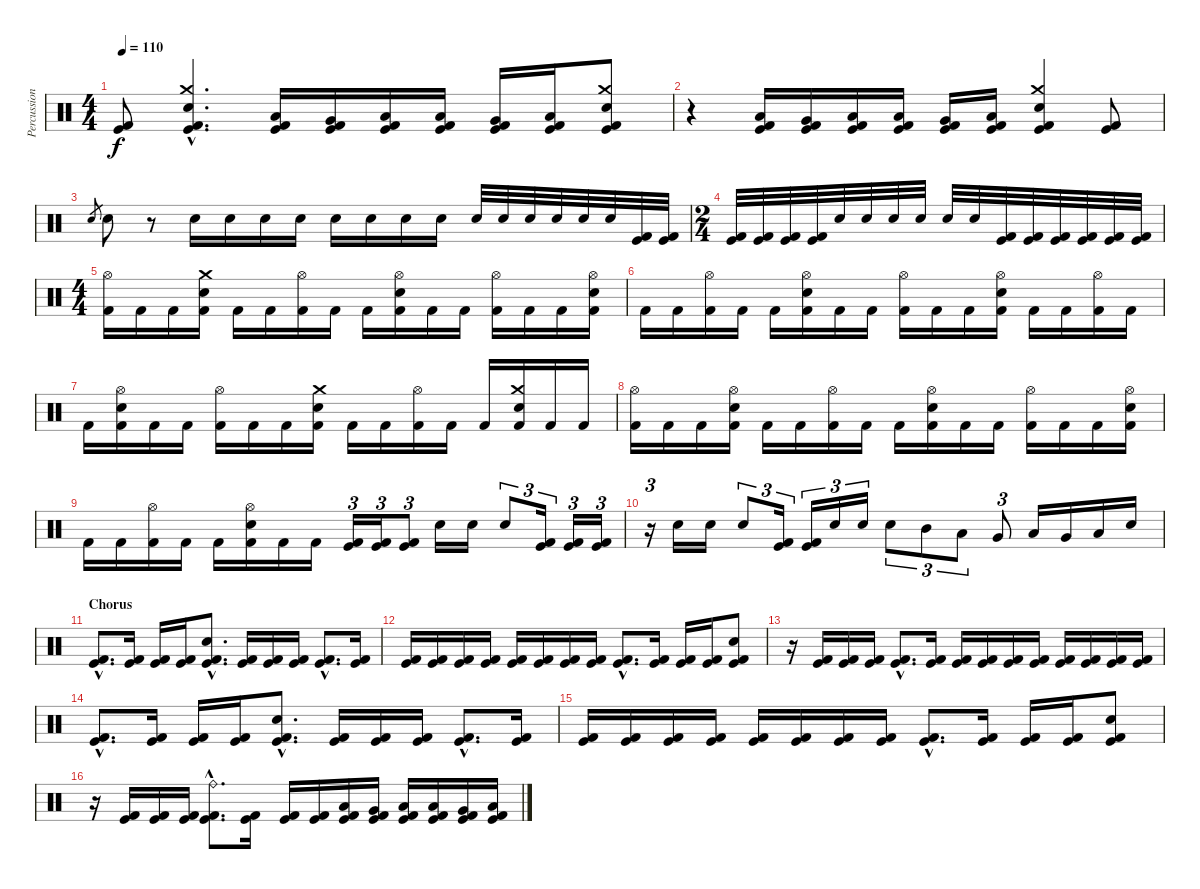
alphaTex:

\track ("Percussion" "Percussion") {instrument percussion}
\staff {score}
\articulation defaults
\ts (4 4)
\tempo 110
\clef neutral
\ks c
("Kick (hit) 2" "Kick (hit)").8{dy f} ("Crash medium (hit)"{hac} "Electric Snare (hit)"{hac} "Kick (hit) 2"{hac} "Kick (hit)"{hac}).4{d} ("Low Tom (hit)" "Kick (hit)" "Kick (hit) 2").16 ("Very Low Tom (hit)" "Kick (hit)" "Kick (hit) 2").16 ("Low Floor Tom (hit)" "Kick (hit)" "Kick (hit) 2").16 ("Low Tom (hit)" "Kick (hit)" "Kick (hit) 2").16 ("Very Low Tom (hit)" "Kick (hit)" "Kick (hit) 2").16 ("Low Floor Tom (hit)" "Kick (hit)" "Kick (hit) 2").16 ("Crash medium (hit)" "Electric Snare (hit)" "Kick (hit) 2" "Kick (hit)").8 |
r.4 ("Low Tom (hit)" "Kick (hit) 2" "Kick (hit)").16 ("Very Low Tom (hit)" "Kick (hit) 2" "Kick (hit)").16 ("Low Floor Tom (hit)" "Kick (hit) 2" "Kick (hit)").16 ("Low Tom (hit)" "Kick (hit) 2" "Kick (hit)").16 ("Very Low Tom (hit)" "Kick (hit) 2" "Kick (hit)").16 ("Low Floor Tom (hit)" "Kick (hit) 2" "Kick (hit)").16 ("Crash medium (hit)" "Electric Snare (hit)" "Kick (hit) 2" "Kick (hit)").4 ("Kick (hit) 2" "Kick (hit)").8 |
"Electric Snare (hit)".8{gr} "Electric Snare (hit)".8 r.8{volume 5} "Electric Snare (hit)".16{volume 16} "Electric Snare (hit)".16 "Electric Snare (hit)".16 "Electric Snare (hit)".16 "Electric Snare (hit)".16 "Electric Snare (hit)".16 "Electric Snare (hit)".16 "Electric Snare (hit)".16 "Electric Snare (hit)".32 "Electric Snare (hit)".32 "Electric Snare (hit)".32 "Electric Snare (hit)".32 "Electric Snare (hit)".32 "Electric Snare (hit)".32 ("Kick (hit) 2" "Kick (hit)").32 ("Kick (hit) 2" "Kick (hit)").32 |
\ts (2 4)
("Kick (hit) 2" "Kick (hit)").32 ("Kick (hit) 2" "Kick (hit)").32 ("Kick (hit) 2" "Kick (hit)").32 ("Kick (hit) 2" "Kick (hit)").32 "Electric Snare (hit)".32 "Electric Snare (hit)".32 "Electric Snare (hit)".32 "Electric Snare (hit)".32 "Electric Snare (hit)".32 "Electric Snare (hit)".32 ("Kick (hit) 2" "Kick (hit)").32 ("Kick (hit) 2" "Kick (hit)").32 ("Kick (hit) 2" "Kick (hit)").32 ("Kick (hit) 2" "Kick (hit)").32 ("Kick (hit) 2" "Kick (hit)").32 ("Kick (hit) 2" "Kick (hit)").32 |
\ts (4 4)
("Hi-Hat (open)" "Kick (hit) 2").16 "Kick (hit) 2".16 "Kick (hit) 2".16 ("Crash medium (hit)" "Electric Snare (hit)" "Kick (hit) 2").16 "Kick (hit) 2".16 "Kick (hit) 2".16 ("Hi-Hat (open)" "Kick (hit) 2").16 "Kick (hit) 2".16 "Kick (hit) 2".16 ("Hi-Hat (open)" "Electric Snare (hit)" "Kick (hit) 2").16 "Kick (hit) 2".16 "Kick (hit) 2".16 ("Hi-Hat (open)" "Kick (hit) 2").16 "Kick (hit) 2".16 "Kick (hit) 2".16 ("Hi-Hat (open)" "Electric Snare (hit)" "Kick (hit) 2").16 |
"Kick (hit) 2".16 "Kick (hit) 2".16 ("Hi-Hat (open)" "Kick (hit) 2").16 "Kick (hit) 2".16 "Kick (hit) 2".16 ("Hi-Hat (open)" "Electric Snare (hit)" "Kick (hit) 2").16 "Kick (hit) 2".16 "Kick (hit) 2".16 ("Hi-Hat (open)" "Kick (hit) 2").16 "Kick (hit) 2".16 "Kick (hit) 2".16 ("Hi-Hat (open)" "Electric Snare (hit)" "Kick (hit) 2").16 "Kick (hit) 2".16 "Kick (hit) 2".16 ("Hi-Hat (open)" "Kick (hit) 2").16 "Kick (hit) 2".16 |
"Kick (hit) 2".16 ("Hi-Hat (open)" "Electric Snare (hit)" "Kick (hit) 2").16 "Kick (hit) 2".16 "Kick (hit) 2".16 ("Hi-Hat (open)" "Kick (hit) 2").16 "Kick (hit) 2".16 "Kick (hit) 2".16 ("Crash medium (hit)" "Electric Snare (hit)" "Kick (hit) 2").16 "Kick (hit) 2".16 "Kick (hit) 2".16 ("Hi-Hat (open)" "Kick (hit) 2").16 "Kick (hit) 2".16 "Kick (hit) 2".16 ("Crash medium (hit)" "Electric Snare (hit)" "Kick (hit) 2").16 "Kick (hit) 2".16 "Kick (hit) 2".16 |
("Hi-Hat (open)" "Kick (hit) 2").16 "Kick (hit) 2".16 "Kick (hit) 2".16 ("Hi-Hat (open)" "Electric Snare (hit)" "Kick (hit) 2").16 "Kick (hit) 2".16 "Kick (hit) 2".16 ("Hi-Hat (open)" "Kick (hit) 2").16 "Kick (hit) 2".16 "Kick (hit) 2".16 ("Hi-Hat (open)" "Electric Snare (hit)" "Kick (hit) 2").16 "Kick (hit) 2".16 "Kick (hit) 2".16 ("Hi-Hat (open)" "Kick (hit) 2").16 "Kick (hit) 2".16 "Kick (hit) 2".16 ("Hi-Hat (open)" "Electric Snare (hit)" "Kick (hit) 2").16 |
"Kick (hit) 2".16 "Kick (hit) 2".16 ("Hi-Hat (open)" "Kick (hit) 2").16 "Kick (hit) 2".16 "Kick (hit) 2".16 ("Hi-Hat (open)" "Electric Snare (hit)" "Kick (hit) 2").16 "Kick (hit) 2".16 "Kick (hit) 2".16 ("Kick (hit)" "Kick (hit) 2").16{tu (3 2)} ("Kick (hit)" "Kick (hit) 2").16{tu (3 2)} ("Kick (hit)" "Kick (hit) 2").8{tu (3 2)} "Electric Snare (hit)".16 "Electric Snare (hit)".16 "Electric Snare (hit)".8{tu (3 2)} ("Kick (hit)" "Kick (hit) 2").16{tu (3 2)} ("Kick (hit)" "Kick (hit) 2").16{tu (3 2)} ("Kick (hit)" "Kick (hit) 2").16{tu (3 2)} |
r.16{tu (3 2)} "Electric Snare (hit)".16 "Electric Snare (hit)".16 "Electric Snare (hit)".8{tu (3 2)} ("Kick (hit)" "Kick (hit) 2").16{tu (3 2)} ("Kick (hit)" "Kick (hit) 2").16{tu (3 2)} "Electric Snare (hit)".16{tu (3 2)} "Electric Snare (hit)".16{tu (3 2)} "Electric Snare (hit)".8{tu (3 2)} "Mid Tom (hit)".8{tu (3 2)} "Low Tom (hit)".8{tu (3 2)} "Very Low Tom (hit)".8{tu (3 2)} "Low Tom (hit)".16 "Very Low Tom (hit)".16 "Low Floor Tom (hit)".16 "Electric Snare (hit)".16 |
\section ("" "Chorus")
("Kick (hit)"{hac} "Kick (hit) 2"{hac}).8{d} ("Kick (hit)" "Kick (hit) 2").16 ("Kick (hit)" "Kick (hit) 2").16 ("Kick (hit)" "Kick (hit) 2").16 ("Electric Snare (hit)"{hac} "Kick (hit)"{hac} "Kick (hit) 2"{hac}).8{d} ("Kick (hit)" "Kick (hit) 2").16 ("Kick (hit)" "Kick (hit) 2").16 ("Kick (hit)" "Kick (hit) 2").16 ("Kick (hit)"{hac} "Kick (hit) 2"{hac}).8{d} ("Kick (hit)" "Kick (hit) 2").16 |
("Kick (hit)" "Kick (hit) 2").16 ("Kick (hit)" "Kick (hit) 2").16 ("Kick (hit)" "Kick (hit) 2").16 ("Kick (hit)" "Kick (hit) 2").16 ("Kick (hit)" "Kick (hit) 2").16 ("Kick (hit)" "Kick (hit) 2").16 ("Kick (hit)" "Kick (hit) 2").16 ("Kick (hit)" "Kick (hit) 2").16 ("Kick (hit)"{hac} "Kick (hit) 2"{hac}).8{d} ("Kick (hit)" "Kick (hit) 2").16 ("Kick (hit)" "Kick (hit) 2").16 ("Kick (hit)" "Kick (hit) 2").16 ("Electric Snare (hit)" "Kick (hit)" "Kick (hit) 2").8 |
r.16 ("Kick (hit)" "Kick (hit) 2").16 ("Kick (hit)" "Kick (hit) 2").16 ("Kick (hit)" "Kick (hit) 2").16 ("Kick (hit)"{hac} "Kick (hit) 2"{hac}).8{d} ("Kick (hit)" "Kick (hit) 2").16 ("Kick (hit)" "Kick (hit) 2").16 ("Kick (hit)" "Kick (hit) 2").16 ("Kick (hit)" "Kick (hit) 2").16 ("Kick (hit)" "Kick (hit) 2").16 ("Kick (hit)" "Kick (hit) 2").16 ("Kick (hit)" "Kick (hit) 2").16 ("Kick (hit)" "Kick (hit) 2").16 ("Kick (hit)" "Kick (hit) 2").16 |
("Kick (hit)"{hac} "Kick (hit) 2"{hac}).8{d} ("Kick (hit)" "Kick (hit) 2").16 ("Kick (hit)" "Kick (hit) 2").16 ("Kick (hit)" "Kick (hit) 2").16 ("Electric Snare (hit)"{hac} "Kick (hit)"{hac} "Kick (hit) 2"{hac}).8{d} ("Kick (hit)" "Kick (hit) 2").16 ("Kick (hit)" "Kick (hit) 2").16 ("Kick (hit)" "Kick (hit) 2").16 ("Kick (hit)"{hac} "Kick (hit) 2"{hac}).8{d} ("Kick (hit)" "Kick (hit) 2").16 |
("Kick (hit)" "Kick (hit) 2").16 ("Kick (hit)" "Kick (hit) 2").16 ("Kick (hit)" "Kick (hit) 2").16 ("Kick (hit)" "Kick (hit) 2").16 ("Kick (hit)" "Kick (hit) 2").16 ("Kick (hit)" "Kick (hit) 2").16 ("Kick (hit)" "Kick (hit) 2").16 ("Kick (hit)" "Kick (hit) 2").16 ("Kick (hit)"{hac} "Kick (hit) 2"{hac}).8{d} ("Kick (hit)" "Kick (hit) 2").16 ("Kick (hit)" "Kick (hit) 2").16 ("Kick (hit)" "Kick (hit) 2").16 ("Electric Snare (hit)" "Kick (hit)" "Kick (hit) 2").8 |
r.16 ("Kick (hit)" "Kick (hit) 2").16 ("Kick (hit)" "Kick (hit) 2").16 ("Kick (hit)" "Kick (hit) 2").16 ("Ride (bell)"{hac} "Kick (hit)"{hac} "Kick (hit) 2"{hac}).8{d} ("Kick (hit)" "Kick (hit) 2").16 ("Kick (hit)" "Kick (hit) 2").16 ("Kick (hit)" "Kick (hit) 2").16 ("Low Tom (hit)" "Kick (hit)" "Kick (hit) 2").16 ("Very Low Tom (hit)" "Kick (hit)" "Kick (hit) 2").16 ("Low Floor Tom (hit)" "Kick (hit)" "Kick (hit) 2").16 ("Low Tom (hit)" "Kick (hit)" "Kick (hit) 2").16 ("Very Low Tom (hit)" "Kick (hit)" "Kick (hit) 2").16 ("Low Floor Tom (hit)" "Kick (hit)" "Kick (hit) 2").16
